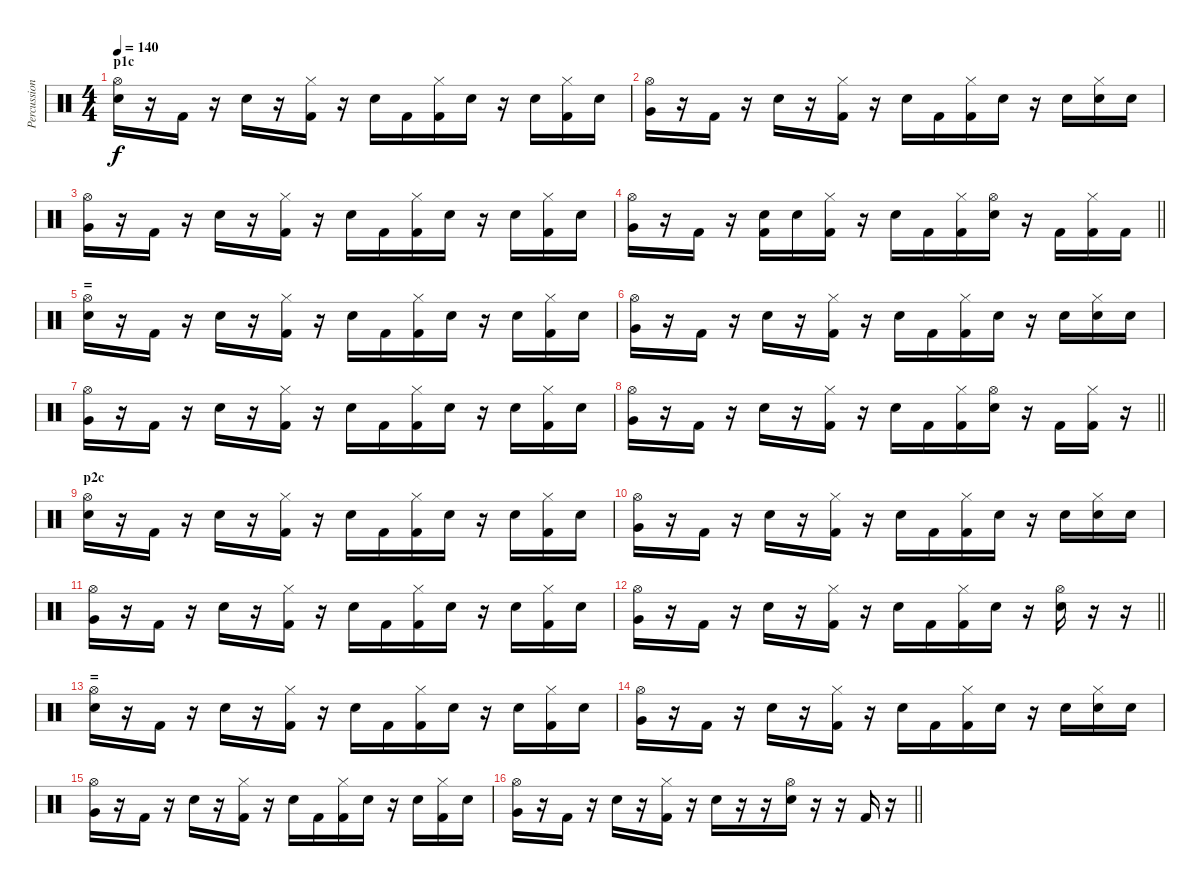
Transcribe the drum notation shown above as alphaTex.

\track ("Percussion" "Percussion") {instrument percussion}
\staff {score}
\articulation defaults
\ts (4 4)
\section ("" "p1c")
\tempo 140
\clef neutral
\ks c
("Electric Snare (hit)" "Hi-Hat (open)").16{dy f} r.16 "Kick (hit) 2".16 r.16 "Electric Snare (hit)".16 r.16 ("Kick (hit) 2" "Hi-Hat (closed)").16 r.16 "Electric Snare (hit)".16 "Kick (hit) 2".16 ("Kick (hit) 2" "Hi-Hat (closed)").16 "Electric Snare (hit)".16 r.16 "Electric Snare (hit)".16 ("Kick (hit) 2" "Hi-Hat (closed)").16 "Electric Snare (hit)".16 |
("Very Low Tom (hit)" "Hi-Hat (open)").16 r.16 "Kick (hit) 2".16 r.16 "Electric Snare (hit)".16 r.16 ("Kick (hit) 2" "Hi-Hat (closed)").16 r.16 "Electric Snare (hit)".16 "Kick (hit) 2".16 ("Kick (hit) 2" "Hi-Hat (closed)").16 "Electric Snare (hit)".16 r.16 "Electric Snare (hit)".16 ("Electric Snare (hit)" "Hi-Hat (closed)").16 "Electric Snare (hit)".16 |
("Very Low Tom (hit)" "Hi-Hat (open)").16 r.16 "Kick (hit) 2".16 r.16 "Electric Snare (hit)".16 r.16 ("Kick (hit) 2" "Hi-Hat (closed)").16 r.16 "Electric Snare (hit)".16 "Kick (hit) 2".16 ("Kick (hit) 2" "Hi-Hat (closed)").16 "Electric Snare (hit)".16 r.16 "Electric Snare (hit)".16 ("Kick (hit) 2" "Hi-Hat (closed)").16 "Electric Snare (hit)".16 |
\barLineRight lightlight
("Very Low Tom (hit)" "Hi-Hat (open)").16 r.16 "Kick (hit) 2".16 r.16 ("Kick (hit) 2" "Electric Snare (hit)").16 "Electric Snare (hit)".16 ("Kick (hit) 2" "Hi-Hat (closed)").16 r.16 "Electric Snare (hit)".16 "Kick (hit) 2".16 ("Kick (hit) 2" "Hi-Hat (closed)").16 ("Electric Snare (hit)" "Hi-Hat (open)").16 r.16 "Kick (hit) 2".16 ("Kick (hit) 2" "Hi-Hat (closed)").16 "Kick (hit) 2".16 |
\section ("" "=")
("Electric Snare (hit)" "Hi-Hat (open)").16 r.16 "Kick (hit) 2".16 r.16 "Electric Snare (hit)".16 r.16 ("Kick (hit) 2" "Hi-Hat (closed)").16 r.16 "Electric Snare (hit)".16 "Kick (hit) 2".16 ("Kick (hit) 2" "Hi-Hat (closed)").16 "Electric Snare (hit)".16 r.16 "Electric Snare (hit)".16 ("Kick (hit) 2" "Hi-Hat (closed)").16 "Electric Snare (hit)".16 |
("Very Low Tom (hit)" "Hi-Hat (open)").16 r.16 "Kick (hit) 2".16 r.16 "Electric Snare (hit)".16 r.16 ("Kick (hit) 2" "Hi-Hat (closed)").16 r.16 "Electric Snare (hit)".16 "Kick (hit) 2".16 ("Kick (hit) 2" "Hi-Hat (closed)").16 "Electric Snare (hit)".16 r.16 "Electric Snare (hit)".16 ("Electric Snare (hit)" "Hi-Hat (closed)").16 "Electric Snare (hit)".16 |
("Very Low Tom (hit)" "Hi-Hat (open)").16 r.16 "Kick (hit) 2".16 r.16 "Electric Snare (hit)".16 r.16 ("Kick (hit) 2" "Hi-Hat (closed)").16 r.16 "Electric Snare (hit)".16 "Kick (hit) 2".16 ("Kick (hit) 2" "Hi-Hat (closed)").16 "Electric Snare (hit)".16 r.16 "Electric Snare (hit)".16 ("Kick (hit) 2" "Hi-Hat (closed)").16 "Electric Snare (hit)".16 |
\barLineRight lightlight
("Very Low Tom (hit)" "Hi-Hat (open)").16 r.16 "Kick (hit) 2".16 r.16 "Electric Snare (hit)".16 r.16 ("Kick (hit) 2" "Hi-Hat (closed)").16 r.16 "Electric Snare (hit)".16 "Kick (hit) 2".16 ("Kick (hit) 2" "Hi-Hat (closed)").16 ("Electric Snare (hit)" "Hi-Hat (open)").16 r.16 "Kick (hit) 2".16 ("Kick (hit) 2" "Hi-Hat (closed)").16 r.16 |
\section ("" "p2c")
("Electric Snare (hit)" "Hi-Hat (open)").16 r.16 "Kick (hit) 2".16 r.16 "Electric Snare (hit)".16 r.16 ("Kick (hit) 2" "Hi-Hat (closed)").16 r.16 "Electric Snare (hit)".16 "Kick (hit) 2".16 ("Kick (hit) 2" "Hi-Hat (closed)").16 "Electric Snare (hit)".16 r.16 "Electric Snare (hit)".16 ("Kick (hit) 2" "Hi-Hat (closed)").16 "Electric Snare (hit)".16 |
("Very Low Tom (hit)" "Hi-Hat (open)").16 r.16 "Kick (hit) 2".16 r.16 "Electric Snare (hit)".16 r.16 ("Kick (hit) 2" "Hi-Hat (closed)").16 r.16 "Electric Snare (hit)".16 "Kick (hit) 2".16 ("Kick (hit) 2" "Hi-Hat (closed)").16 "Electric Snare (hit)".16 r.16 "Electric Snare (hit)".16 ("Electric Snare (hit)" "Hi-Hat (closed)").16 "Electric Snare (hit)".16 |
("Very Low Tom (hit)" "Hi-Hat (open)").16 r.16 "Kick (hit) 2".16 r.16 "Electric Snare (hit)".16 r.16 ("Kick (hit) 2" "Hi-Hat (closed)").16 r.16 "Electric Snare (hit)".16 "Kick (hit) 2".16 ("Kick (hit) 2" "Hi-Hat (closed)").16 "Electric Snare (hit)".16 r.16 "Electric Snare (hit)".16 ("Kick (hit) 2" "Hi-Hat (closed)").16 "Electric Snare (hit)".16 |
\barLineRight lightlight
("Very Low Tom (hit)" "Hi-Hat (open)").16 r.16 "Kick (hit) 2".16 r.16 "Electric Snare (hit)".16 r.16 ("Kick (hit) 2" "Hi-Hat (closed)").16 r.16 "Electric Snare (hit)".16 "Kick (hit) 2".16 ("Kick (hit) 2" "Hi-Hat (closed)").16 "Electric Snare (hit)".16 r.16 ("Electric Snare (hit)" "Hi-Hat (open)").16 r.16 r.16 |
\section ("" "=")
("Electric Snare (hit)" "Hi-Hat (open)").16 r.16 "Kick (hit) 2".16 r.16 "Electric Snare (hit)".16 r.16 ("Kick (hit) 2" "Hi-Hat (closed)").16 r.16 "Electric Snare (hit)".16 "Kick (hit) 2".16 ("Kick (hit) 2" "Hi-Hat (closed)").16 "Electric Snare (hit)".16 r.16 "Electric Snare (hit)".16 ("Kick (hit) 2" "Hi-Hat (closed)").16 "Electric Snare (hit)".16 |
("Very Low Tom (hit)" "Hi-Hat (open)").16 r.16 "Kick (hit) 2".16 r.16 "Electric Snare (hit)".16 r.16 ("Kick (hit) 2" "Hi-Hat (closed)").16 r.16 "Electric Snare (hit)".16 "Kick (hit) 2".16 ("Kick (hit) 2" "Hi-Hat (closed)").16 "Electric Snare (hit)".16 r.16 "Electric Snare (hit)".16 ("Electric Snare (hit)" "Hi-Hat (closed)").16 "Electric Snare (hit)".16 |
("Very Low Tom (hit)" "Hi-Hat (open)").16 r.16 "Kick (hit) 2".16 r.16 "Electric Snare (hit)".16 r.16 ("Kick (hit) 2" "Hi-Hat (closed)").16 r.16 "Electric Snare (hit)".16 "Kick (hit) 2".16 ("Kick (hit) 2" "Hi-Hat (closed)").16 "Electric Snare (hit)".16 r.16 "Electric Snare (hit)".16 ("Kick (hit) 2" "Hi-Hat (closed)").16 "Electric Snare (hit)".16 |
\barLineRight lightlight
("Very Low Tom (hit)" "Hi-Hat (open)").16 r.16 "Kick (hit) 2".16 r.16 "Electric Snare (hit)".16 r.16 ("Kick (hit) 2" "Hi-Hat (closed)").16 r.16 "Electric Snare (hit)".16 r.16 r.16 ("Electric Snare (hit)" "Hi-Hat (open)").16 r.16 r.16 "Kick (hit) 2".16 r.16
